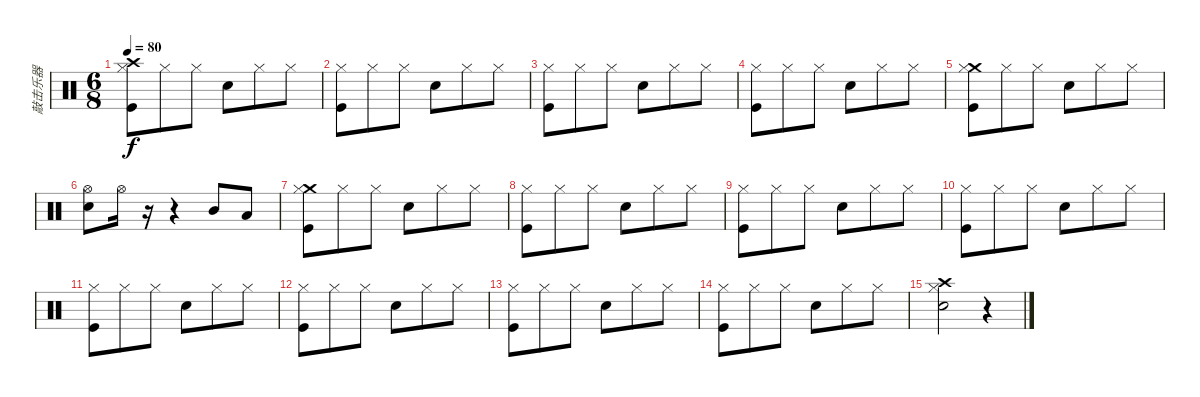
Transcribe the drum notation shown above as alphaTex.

\track ("敲击乐器" "敲击乐器") {instrument percussion}
\staff {score}
\articulation defaults
\ts (6 8)
\tempo 80
\clef neutral
\ks c
("Crash high (hit)" "Hi-Hat (closed)" "Kick (hit)").8{dy f} "Hi-Hat (closed)".8 "Hi-Hat (closed)".8 "Snare (hit) 2".8 "Hi-Hat (closed)".8 "Hi-Hat (closed)".8 |
("Hi-Hat (closed)" "Kick (hit)").8 "Hi-Hat (closed)".8 "Hi-Hat (closed)".8 "Snare (hit) 2".8 "Hi-Hat (closed)".8 "Hi-Hat (closed)".8 |
("Hi-Hat (closed)" "Kick (hit)").8 "Hi-Hat (closed)".8 "Hi-Hat (closed)".8 "Snare (hit) 2".8 "Hi-Hat (closed)".8 "Hi-Hat (closed)".8 |
("Hi-Hat (closed)" "Kick (hit)").8 "Hi-Hat (closed)".8 "Hi-Hat (closed)".8 "Snare (hit) 2".8 "Hi-Hat (closed)".8 "Hi-Hat (closed)".8 |
("Crash medium (hit)" "Hi-Hat (closed)" "Kick (hit)").8 "Hi-Hat (closed)".8 "Hi-Hat (closed)".8 "Snare (hit) 2".8 "Hi-Hat (closed)".8 "Hi-Hat (closed)".8 |
("Hi-Hat (open)" "Snare (hit) 2").8 "Hi-Hat (open)".16 r.16 r.4 "Mid Tom (hit)".8 "Low Tom (hit)".8 |
("Crash medium (hit)" "Hi-Hat (closed)" "Kick (hit)").8 "Hi-Hat (closed)".8 "Hi-Hat (closed)".8 "Snare (hit) 2".8 "Hi-Hat (closed)".8 "Hi-Hat (closed)".8 |
("Hi-Hat (closed)" "Kick (hit)").8 "Hi-Hat (closed)".8 "Hi-Hat (closed)".8 "Snare (hit) 2".8 "Hi-Hat (closed)".8 "Hi-Hat (closed)".8 |
("Hi-Hat (closed)" "Kick (hit)").8 "Hi-Hat (closed)".8 "Hi-Hat (closed)".8 "Snare (hit) 2".8 "Hi-Hat (closed)".8 "Hi-Hat (closed)".8 |
("Hi-Hat (closed)" "Kick (hit)").8 "Hi-Hat (closed)".8 "Hi-Hat (closed)".8 "Snare (hit) 2".8 "Hi-Hat (closed)".8 "Hi-Hat (closed)".8 |
("Hi-Hat (closed)" "Kick (hit)").8 "Hi-Hat (closed)".8 "Hi-Hat (closed)".8 "Snare (hit) 2".8 "Hi-Hat (closed)".8 "Hi-Hat (closed)".8 |
("Hi-Hat (closed)" "Kick (hit)").8 "Hi-Hat (closed)".8 "Hi-Hat (closed)".8 "Snare (hit) 2".8 "Hi-Hat (closed)".8 "Hi-Hat (closed)".8 |
("Hi-Hat (closed)" "Kick (hit)").8 "Hi-Hat (closed)".8 "Hi-Hat (closed)".8 "Snare (hit) 2".8 "Hi-Hat (closed)".8 "Hi-Hat (closed)".8 |
("Hi-Hat (closed)" "Kick (hit)").8 "Hi-Hat (closed)".8 "Hi-Hat (closed)".8 "Snare (hit) 2".8 "Hi-Hat (closed)".8 "Hi-Hat (closed)".8 |
("Crash high (hit)" "Hi-Hat (closed)" "Snare (hit) 2").2 r.4
